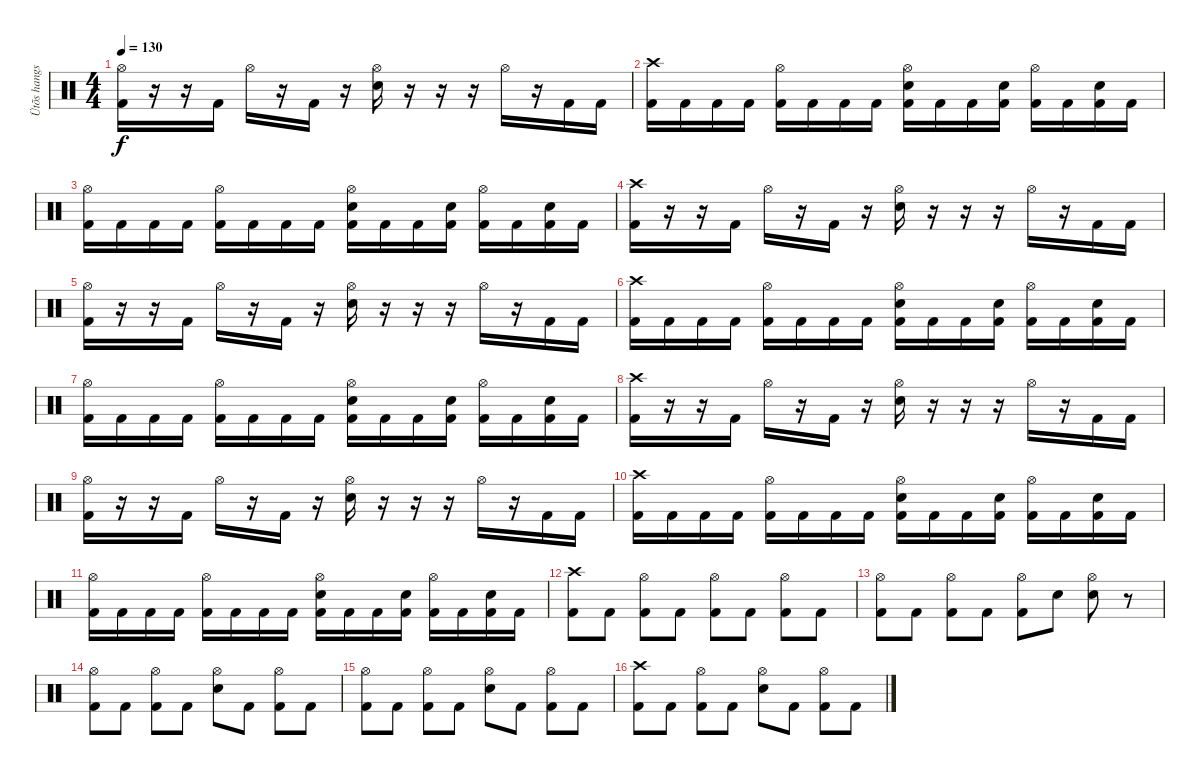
\track ("Ütõs hangszer" "Ütõs hangs") {instrument percussion}
\staff {score}
\articulation defaults
\ts (4 4)
\tempo 130
\clef neutral
\ks c
("Hi-Hat (open)" "Kick (hit) 2").16{dy f} r.16 r.16 "Kick (hit) 2".16 "Hi-Hat (open)".16 r.16 "Kick (hit) 2".16 r.16 ("Hi-Hat (open)" "Snare (hit) 2").16 r.16 r.16 r.16 "Hi-Hat (open)".16 r.16 "Kick (hit) 2".16 "Kick (hit) 2".16 |
("Crash high (hit)" "Kick (hit) 2").16 "Kick (hit) 2".16 "Kick (hit) 2".16 "Kick (hit) 2".16 ("Hi-Hat (open)" "Kick (hit) 2").16 "Kick (hit) 2".16 "Kick (hit) 2".16 "Kick (hit) 2".16 ("Hi-Hat (open)" "Snare (hit) 2" "Kick (hit) 2").16 "Kick (hit) 2".16 "Kick (hit) 2".16 ("Snare (hit) 2" "Kick (hit) 2").16 ("Hi-Hat (open)" "Kick (hit) 2").16 "Kick (hit) 2".16 ("Snare (hit) 2" "Kick (hit) 2").16 "Kick (hit) 2".16 |
("Hi-Hat (open)" "Kick (hit) 2").16 "Kick (hit) 2".16 "Kick (hit) 2".16 "Kick (hit) 2".16 ("Hi-Hat (open)" "Kick (hit) 2").16 "Kick (hit) 2".16 "Kick (hit) 2".16 "Kick (hit) 2".16 ("Hi-Hat (open)" "Snare (hit) 2" "Kick (hit) 2").16 "Kick (hit) 2".16 "Kick (hit) 2".16 ("Snare (hit) 2" "Kick (hit) 2").16 ("Hi-Hat (open)" "Kick (hit) 2").16 "Kick (hit) 2".16 ("Snare (hit) 2" "Kick (hit) 2").16 "Kick (hit) 2".16 |
("Crash high (hit)" "Kick (hit) 2").16 r.16 r.16 "Kick (hit) 2".16 "Hi-Hat (open)".16 r.16 "Kick (hit) 2".16 r.16 ("Hi-Hat (open)" "Snare (hit) 2").16 r.16 r.16 r.16 "Hi-Hat (open)".16 r.16 "Kick (hit) 2".16 "Kick (hit) 2".16 |
("Hi-Hat (open)" "Kick (hit) 2").16 r.16 r.16 "Kick (hit) 2".16 "Hi-Hat (open)".16 r.16 "Kick (hit) 2".16 r.16 ("Hi-Hat (open)" "Snare (hit) 2").16 r.16 r.16 r.16 "Hi-Hat (open)".16 r.16 "Kick (hit) 2".16 "Kick (hit) 2".16 |
("Crash high (hit)" "Kick (hit) 2").16 "Kick (hit) 2".16 "Kick (hit) 2".16 "Kick (hit) 2".16 ("Hi-Hat (open)" "Kick (hit) 2").16 "Kick (hit) 2".16 "Kick (hit) 2".16 "Kick (hit) 2".16 ("Hi-Hat (open)" "Snare (hit) 2" "Kick (hit) 2").16 "Kick (hit) 2".16 "Kick (hit) 2".16 ("Snare (hit) 2" "Kick (hit) 2").16 ("Hi-Hat (open)" "Kick (hit) 2").16 "Kick (hit) 2".16 ("Snare (hit) 2" "Kick (hit) 2").16 "Kick (hit) 2".16 |
("Hi-Hat (open)" "Kick (hit) 2").16 "Kick (hit) 2".16 "Kick (hit) 2".16 "Kick (hit) 2".16 ("Hi-Hat (open)" "Kick (hit) 2").16 "Kick (hit) 2".16 "Kick (hit) 2".16 "Kick (hit) 2".16 ("Hi-Hat (open)" "Snare (hit) 2" "Kick (hit) 2").16 "Kick (hit) 2".16 "Kick (hit) 2".16 ("Snare (hit) 2" "Kick (hit) 2").16 ("Hi-Hat (open)" "Kick (hit) 2").16 "Kick (hit) 2".16 ("Snare (hit) 2" "Kick (hit) 2").16 "Kick (hit) 2".16 |
("Crash high (hit)" "Kick (hit) 2").16 r.16 r.16 "Kick (hit) 2".16 "Hi-Hat (open)".16 r.16 "Kick (hit) 2".16 r.16 ("Hi-Hat (open)" "Snare (hit) 2").16 r.16 r.16 r.16 "Hi-Hat (open)".16 r.16 "Kick (hit) 2".16 "Kick (hit) 2".16 |
("Hi-Hat (open)" "Kick (hit) 2").16 r.16 r.16 "Kick (hit) 2".16 "Hi-Hat (open)".16 r.16 "Kick (hit) 2".16 r.16 ("Hi-Hat (open)" "Snare (hit) 2").16 r.16 r.16 r.16 "Hi-Hat (open)".16 r.16 "Kick (hit) 2".16 "Kick (hit) 2".16 |
("Crash high (hit)" "Kick (hit) 2").16 "Kick (hit) 2".16 "Kick (hit) 2".16 "Kick (hit) 2".16 ("Hi-Hat (open)" "Kick (hit) 2").16 "Kick (hit) 2".16 "Kick (hit) 2".16 "Kick (hit) 2".16 ("Hi-Hat (open)" "Snare (hit) 2" "Kick (hit) 2").16 "Kick (hit) 2".16 "Kick (hit) 2".16 ("Snare (hit) 2" "Kick (hit) 2").16 ("Hi-Hat (open)" "Kick (hit) 2").16 "Kick (hit) 2".16 ("Snare (hit) 2" "Kick (hit) 2").16 "Kick (hit) 2".16 |
("Hi-Hat (open)" "Kick (hit) 2").16 "Kick (hit) 2".16 "Kick (hit) 2".16 "Kick (hit) 2".16 ("Hi-Hat (open)" "Kick (hit) 2").16 "Kick (hit) 2".16 "Kick (hit) 2".16 "Kick (hit) 2".16 ("Hi-Hat (open)" "Snare (hit) 2" "Kick (hit) 2").16 "Kick (hit) 2".16 "Kick (hit) 2".16 ("Snare (hit) 2" "Kick (hit) 2").16 ("Hi-Hat (open)" "Kick (hit) 2").16 "Kick (hit) 2".16 ("Snare (hit) 2" "Kick (hit) 2").16 "Kick (hit) 2".16 |
("Crash high (hit)" "Kick (hit) 2").8 "Kick (hit) 2".8 ("Hi-Hat (open)" "Kick (hit) 2").8 "Kick (hit) 2".8 ("Hi-Hat (open)" "Kick (hit) 2").8 "Kick (hit) 2".8 ("Hi-Hat (open)" "Kick (hit) 2").8 "Kick (hit) 2".8 |
("Hi-Hat (open)" "Kick (hit) 2").8 "Kick (hit) 2".8 ("Hi-Hat (open)" "Kick (hit) 2").8 "Kick (hit) 2".8 ("Hi-Hat (open)" "Kick (hit) 2").8 "Snare (hit) 2".8 ("Hi-Hat (open)" "Snare (hit) 2").8 r.8 |
("Hi-Hat (open)" "Kick (hit) 2").8 "Kick (hit) 2".8 ("Hi-Hat (open)" "Kick (hit) 2").8 "Kick (hit) 2".8 ("Hi-Hat (open)" "Snare (hit) 2").8 "Kick (hit) 2".8 ("Hi-Hat (open)" "Kick (hit) 2").8 "Kick (hit) 2".8 |
("Hi-Hat (open)" "Kick (hit) 2").8 "Kick (hit) 2".8 ("Hi-Hat (open)" "Kick (hit) 2").8 "Kick (hit) 2".8 ("Hi-Hat (open)" "Snare (hit) 2").8 "Kick (hit) 2".8 ("Hi-Hat (open)" "Kick (hit) 2").8 "Kick (hit) 2".8 |
("Crash high (hit)" "Kick (hit) 2").8 "Kick (hit) 2".8 ("Hi-Hat (open)" "Kick (hit) 2").8 "Kick (hit) 2".8 ("Hi-Hat (open)" "Snare (hit) 2").8 "Kick (hit) 2".8 ("Hi-Hat (open)" "Kick (hit) 2").8 "Kick (hit) 2".8
